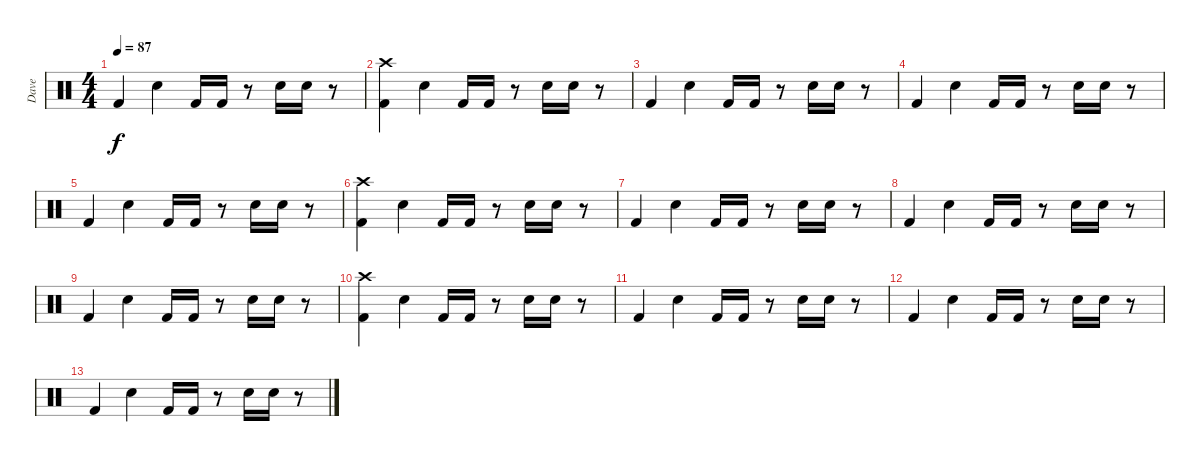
\track ("Dave" "Dave") {instrument percussion}
\staff {score}
\articulation defaults
\ts (4 4)
\tempo 87
\clef neutral
\ks c "Kick (hit) 2".4{dy f} "Snare (hit) 2".4 "Kick (hit) 2".16 "Kick (hit) 2".16
r.8 "Snare (hit) 2".16 "Snare (hit) 2".16 r.8 |
("Crash high (hit)" "Kick (hit) 2").4 "Snare (hit) 2".4 "Kick (hit) 2".16 "Kick (hit) 2".16 r.8 "Snare (hit) 2".16 "Snare (hit) 2".16 r.8 |
"Kick (hit) 2".4 "Snare (hit) 2".4 "Kick (hit) 2".16 "Kick (hit) 2".16 r.8 "Snare (hit) 2".16 "Snare (hit) 2".16 r.8 |
"Kick (hit) 2".4 "Snare (hit) 2".4 "Kick (hit) 2".16 "Kick (hit) 2".16 r.8 "Snare (hit) 2".16 "Snare (hit) 2".16 r.8 |
"Kick (hit) 2".4 "Snare (hit) 2".4 "Kick (hit) 2".16 "Kick (hit) 2".16 r.8 "Snare (hit) 2".16 "Snare (hit) 2".16 r.8 |
("Crash high (hit)" "Kick (hit) 2").4 "Snare (hit) 2".4 "Kick (hit) 2".16 "Kick (hit) 2".16 r.8 "Snare (hit) 2".16 "Snare (hit) 2".16 r.8 |
"Kick (hit) 2".4 "Snare (hit) 2".4 "Kick (hit) 2".16 "Kick (hit) 2".16 r.8 "Snare (hit) 2".16 "Snare (hit) 2".16 r.8 |
"Kick (hit) 2".4 "Snare (hit) 2".4 "Kick (hit) 2".16 "Kick (hit) 2".16 r.8 "Snare (hit) 2".16 "Snare (hit) 2".16 r.8 |
"Kick (hit) 2".4 "Snare (hit) 2".4 "Kick (hit) 2".16 "Kick (hit) 2".16 r.8 "Snare (hit) 2".16 "Snare (hit) 2".16 r.8 |
("Crash high (hit)" "Kick (hit) 2").4 "Snare (hit) 2".4 "Kick (hit) 2".16 "Kick (hit) 2".16 r.8 "Snare (hit) 2".16 "Snare (hit) 2".16 r.8 |
"Kick (hit) 2".4 "Snare (hit) 2".4 "Kick (hit) 2".16 "Kick (hit) 2".16 r.8 "Snare (hit) 2".16 "Snare (hit) 2".16 r.8 |
"Kick (hit) 2".4 "Snare (hit) 2".4 "Kick (hit) 2".16 "Kick (hit) 2".16 r.8 "Snare (hit) 2".16 "Snare (hit) 2".16 r.8 |
"Kick (hit) 2".4 "Snare (hit) 2".4 "Kick (hit) 2".16 "Kick (hit) 2".16 r.8 "Snare (hit) 2".16 "Snare (hit) 2".16 r.8
